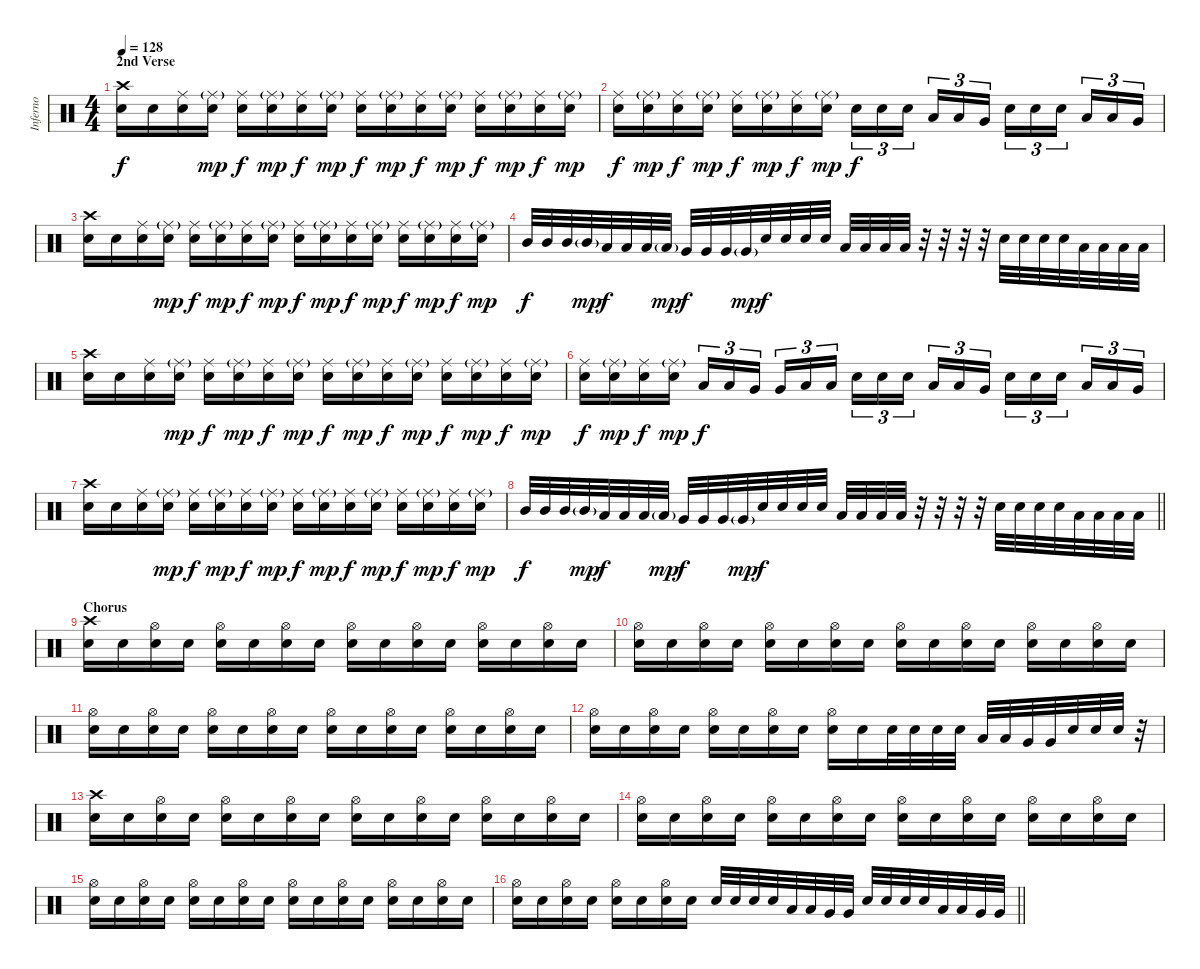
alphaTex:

\track ("Inferno" "Inferno") {instrument percussion}
\staff {score}
\articulation defaults
\ts (4 4)
\section ("" "2nd Verse")
\tempo 128
\clef neutral
\ks c
("Crash high (hit)" "Snare (hit) 2").16{dy f} "Snare (hit) 2".16 ("Ride (middle)" "Snare (hit) 2").16 ("Ride (middle)"{g} "Snare (hit) 2").16{dy mp} ("Ride (middle)" "Snare (hit) 2").16{dy f} ("Ride (middle)"{g} "Snare (hit) 2").16{dy mp} ("Ride (middle)" "Snare (hit) 2").16{dy f} ("Ride (middle)"{g} "Snare (hit) 2").16{dy mp} ("Ride (middle)" "Snare (hit) 2").16{dy f} ("Ride (middle)"{g} "Snare (hit) 2").16{dy mp} ("Ride (middle)" "Snare (hit) 2").16{dy f} ("Ride (middle)"{g} "Snare (hit) 2").16{dy mp} ("Ride (middle)" "Snare (hit) 2").16{dy f} ("Ride (middle)"{g} "Snare (hit) 2").16{dy mp} ("Ride (middle)" "Snare (hit) 2").16{dy f} ("Ride (middle)"{g} "Snare (hit) 2").16{dy mp} |
("Ride (middle)" "Snare (hit) 2").16{dy f} ("Ride (middle)"{g} "Snare (hit) 2").16{dy mp} ("Ride (middle)" "Snare (hit) 2").16{dy f} ("Ride (middle)"{g} "Snare (hit) 2").16{dy mp} ("Ride (middle)" "Snare (hit) 2").16{dy f} ("Ride (middle)"{g} "Snare (hit) 2").16{dy mp} ("Ride (middle)" "Snare (hit) 2").16{dy f} ("Ride (middle)"{g} "Snare (hit) 2").16{dy mp} "Snare (hit) 2".16{tu (3 2) dy f} "Snare (hit) 2".16{tu (3 2)} "Snare (hit) 2".16{tu (3 2) beam splitsecondary} "Low Tom (hit)".16{tu (3 2)} "Low Tom (hit)".16{tu (3 2)} "Very Low Tom (hit)".16{tu (3 2)} "Snare (hit) 2".16{tu (3 2)} "Snare (hit) 2".16{tu (3 2)} "Snare (hit) 2".16{tu (3 2) beam splitsecondary} "Low Tom (hit)".16{tu (3 2)} "Low Tom (hit)".16{tu (3 2)} "Very Low Tom (hit)".16{tu (3 2)} |
("Crash high (hit)" "Snare (hit) 2").16 "Snare (hit) 2".16 ("Ride (middle)" "Snare (hit) 2").16 ("Ride (middle)"{g} "Snare (hit) 2").16{dy mp} ("Ride (middle)" "Snare (hit) 2").16{dy f} ("Ride (middle)"{g} "Snare (hit) 2").16{dy mp} ("Ride (middle)" "Snare (hit) 2").16{dy f} ("Ride (middle)"{g} "Snare (hit) 2").16{dy mp} ("Ride (middle)" "Snare (hit) 2").16{dy f} ("Ride (middle)"{g} "Snare (hit) 2").16{dy mp} ("Ride (middle)" "Snare (hit) 2").16{dy f} ("Ride (middle)"{g} "Snare (hit) 2").16{dy mp} ("Ride (middle)" "Snare (hit) 2").16{dy f} ("Ride (middle)"{g} "Snare (hit) 2").16{dy mp} ("Ride (middle)" "Snare (hit) 2").16{dy f} ("Ride (middle)"{g} "Snare (hit) 2").16{dy mp} |
"Mid Tom (hit)".32{dy f} "Mid Tom (hit)".32 "Mid Tom (hit)".32 "Mid Tom (hit)"{g}.32{dy mp} "Low Tom (hit)".32{dy f} "Low Tom (hit)".32 "Low Tom (hit)".32 "Low Tom (hit)"{g}.32{dy mp} "Very Low Tom (hit)".32{dy f} "Very Low Tom (hit)".32 "Very Low Tom (hit)".32 "Very Low Tom (hit)"{g}.32{dy mp} "Snare (hit) 2".32{dy f} "Snare (hit) 2".32 "Snare (hit) 2".32 "Snare (hit) 2".32 "Low Floor Tom (hit)".32 "Low Floor Tom (hit)".32 "Low Floor Tom (hit)".32 "Low Floor Tom (hit)".32 r.32 r.32 r.32 r.32 "Snare (hit) 2".32 "Snare (hit) 2".32 "Snare (hit) 2".32 "Snare (hit) 2".32 "Low Tom (hit)".32 "Low Tom (hit)".32 "Low Tom (hit)".32 "Low Tom (hit)".32 |
("Crash high (hit)" "Snare (hit) 2").16 "Snare (hit) 2".16 ("Ride (middle)" "Snare (hit) 2").16 ("Ride (middle)"{g} "Snare (hit) 2").16{dy mp} ("Ride (middle)" "Snare (hit) 2").16{dy f} ("Ride (middle)"{g} "Snare (hit) 2").16{dy mp} ("Ride (middle)" "Snare (hit) 2").16{dy f} ("Ride (middle)"{g} "Snare (hit) 2").16{dy mp} ("Ride (middle)" "Snare (hit) 2").16{dy f} ("Ride (middle)"{g} "Snare (hit) 2").16{dy mp} ("Ride (middle)" "Snare (hit) 2").16{dy f} ("Ride (middle)"{g} "Snare (hit) 2").16{dy mp} ("Ride (middle)" "Snare (hit) 2").16{dy f} ("Ride (middle)"{g} "Snare (hit) 2").16{dy mp} ("Ride (middle)" "Snare (hit) 2").16{dy f} ("Ride (middle)"{g} "Snare (hit) 2").16{dy mp} |
("Ride (middle)" "Snare (hit) 2").16{dy f} ("Ride (middle)"{g} "Snare (hit) 2").16{dy mp} ("Ride (middle)" "Snare (hit) 2").16{dy f} ("Ride (middle)"{g} "Snare (hit) 2").16{dy mp} "Low Tom (hit)".16{tu (3 2) dy f} "Low Tom (hit)".16{tu (3 2)} "Very Low Tom (hit)".16{tu (3 2) beam splitsecondary} "Very Low Tom (hit)".16{tu (3 2)} "Low Floor Tom (hit)".16{tu (3 2)} "Low Floor Tom (hit)".16{tu (3 2)} "Snare (hit) 2".16{tu (3 2)} "Snare (hit) 2".16{tu (3 2)} "Snare (hit) 2".16{tu (3 2) beam splitsecondary} "Low Tom (hit)".16{tu (3 2)} "Low Tom (hit)".16{tu (3 2)} "Very Low Tom (hit)".16{tu (3 2)} "Snare (hit) 2".16{tu (3 2)} "Snare (hit) 2".16{tu (3 2)} "Snare (hit) 2".16{tu (3 2) beam splitsecondary} "Low Tom (hit)".16{tu (3 2)} "Low Tom (hit)".16{tu (3 2)} "Very Low Tom (hit)".16{tu (3 2)} |
("Crash high (hit)" "Snare (hit) 2").16 "Snare (hit) 2".16 ("Ride (middle)" "Snare (hit) 2").16 ("Ride (middle)"{g} "Snare (hit) 2").16{dy mp} ("Ride (middle)" "Snare (hit) 2").16{dy f} ("Ride (middle)"{g} "Snare (hit) 2").16{dy mp} ("Ride (middle)" "Snare (hit) 2").16{dy f} ("Ride (middle)"{g} "Snare (hit) 2").16{dy mp} ("Ride (middle)" "Snare (hit) 2").16{dy f} ("Ride (middle)"{g} "Snare (hit) 2").16{dy mp} ("Ride (middle)" "Snare (hit) 2").16{dy f} ("Ride (middle)"{g} "Snare (hit) 2").16{dy mp} ("Ride (middle)" "Snare (hit) 2").16{dy f} ("Ride (middle)"{g} "Snare (hit) 2").16{dy mp} ("Ride (middle)" "Snare (hit) 2").16{dy f} ("Ride (middle)"{g} "Snare (hit) 2").16{dy mp} |
\barLineRight lightlight "Mid Tom (hit)".32{dy f} "Mid Tom (hit)".32 "Mid Tom (hit)".32 "Mid Tom (hit)"{g}.32{dy mp} "Low Tom (hit)".32{dy f} "Low Tom (hit)".32 "Low Tom (hit)".32 "Low Tom (hit)"{g}.32{dy mp} "Very Low Tom (hit)".32{dy f} "Very Low Tom (hit)".32 "Very Low Tom (hit)".32 "Very Low Tom (hit)"{g}.32{dy mp} "Snare (hit) 2".32{dy f} "Snare (hit) 2".32 "Snare (hit) 2".32 "Snare (hit) 2".32 "Low Floor Tom (hit)".32 "Low Floor Tom (hit)".32 "Low Floor Tom (hit)".32 "Low Floor Tom (hit)".32
r.32 r.32 r.32 r.32 "Snare (hit) 2".32 "Snare (hit) 2".32 "Snare (hit) 2".32 "Snare (hit) 2".32 "Low Tom (hit)".32 "Low Tom (hit)".32 "Low Tom (hit)".32 "Low Tom (hit)".32 |
\section ("" "Chorus")
("Crash high (hit)" "Snare (hit) 2").16 "Snare (hit) 2".16 ("Hi-Hat (open)" "Snare (hit) 2").16 "Snare (hit) 2".16 ("Hi-Hat (open)" "Snare (hit) 2").16 "Snare (hit) 2".16 ("Hi-Hat (open)" "Snare (hit) 2").16 "Snare (hit) 2".16 ("Hi-Hat (open)" "Snare (hit) 2").16 "Snare (hit) 2".16 ("Hi-Hat (open)" "Snare (hit) 2").16 "Snare (hit) 2".16 ("Hi-Hat (open)" "Snare (hit) 2").16 "Snare (hit) 2".16 ("Hi-Hat (open)" "Snare (hit) 2").16 "Snare (hit) 2".16 |
("Hi-Hat (open)" "Snare (hit) 2").16 "Snare (hit) 2".16 ("Hi-Hat (open)" "Snare (hit) 2").16 "Snare (hit) 2".16 ("Hi-Hat (open)" "Snare (hit) 2").16 "Snare (hit) 2".16 ("Hi-Hat (open)" "Snare (hit) 2").16 "Snare (hit) 2".16 ("Hi-Hat (open)" "Snare (hit) 2").16 "Snare (hit) 2".16 ("Hi-Hat (open)" "Snare (hit) 2").16 "Snare (hit) 2".16 ("Hi-Hat (open)" "Snare (hit) 2").16 "Snare (hit) 2".16 ("Hi-Hat (open)" "Snare (hit) 2").16 "Snare (hit) 2".16 |
("Hi-Hat (open)" "Snare (hit) 2").16 "Snare (hit) 2".16 ("Hi-Hat (open)" "Snare (hit) 2").16 "Snare (hit) 2".16 ("Hi-Hat (open)" "Snare (hit) 2").16 "Snare (hit) 2".16 ("Hi-Hat (open)" "Snare (hit) 2").16 "Snare (hit) 2".16 ("Hi-Hat (open)" "Snare (hit) 2").16 "Snare (hit) 2".16 ("Hi-Hat (open)" "Snare (hit) 2").16 "Snare (hit) 2".16 ("Hi-Hat (open)" "Snare (hit) 2").16 "Snare (hit) 2".16 ("Hi-Hat (open)" "Snare (hit) 2").16 "Snare (hit) 2".16 |
("Hi-Hat (open)" "Snare (hit) 2").16 "Snare (hit) 2".16 ("Hi-Hat (open)" "Snare (hit) 2").16 "Snare (hit) 2".16 ("Hi-Hat (open)" "Snare (hit) 2").16 "Snare (hit) 2".16 ("Hi-Hat (open)" "Snare (hit) 2").16 "Snare (hit) 2".16 ("Hi-Hat (open)" "Snare (hit) 2").16 "Snare (hit) 2".16 "Snare (hit) 2".32 "Snare (hit) 2".32 "Snare (hit) 2".32 "Snare (hit) 2".32 "Low Tom (hit)".32 "Low Tom (hit)".32 "Very Low Tom (hit)".32 "Very Low Tom (hit)".32 "Snare (hit) 2".32 "Snare (hit) 2".32 "Snare (hit) 2".32 r.32 |
("Crash high (hit)" "Snare (hit) 2").16 "Snare (hit) 2".16 ("Hi-Hat (open)" "Snare (hit) 2").16 "Snare (hit) 2".16 ("Hi-Hat (open)" "Snare (hit) 2").16 "Snare (hit) 2".16 ("Hi-Hat (open)" "Snare (hit) 2").16 "Snare (hit) 2".16 ("Hi-Hat (open)" "Snare (hit) 2").16 "Snare (hit) 2".16 ("Hi-Hat (open)" "Snare (hit) 2").16 "Snare (hit) 2".16 ("Hi-Hat (open)" "Snare (hit) 2").16 "Snare (hit) 2".16 ("Hi-Hat (open)" "Snare (hit) 2").16 "Snare (hit) 2".16 |
("Hi-Hat (open)" "Snare (hit) 2").16 "Snare (hit) 2".16 ("Hi-Hat (open)" "Snare (hit) 2").16 "Snare (hit) 2".16 ("Hi-Hat (open)" "Snare (hit) 2").16 "Snare (hit) 2".16 ("Hi-Hat (open)" "Snare (hit) 2").16 "Snare (hit) 2".16 ("Hi-Hat (open)" "Snare (hit) 2").16 "Snare (hit) 2".16 ("Hi-Hat (open)" "Snare (hit) 2").16 "Snare (hit) 2".16 ("Hi-Hat (open)" "Snare (hit) 2").16 "Snare (hit) 2".16 ("Hi-Hat (open)" "Snare (hit) 2").16 "Snare (hit) 2".16 |
("Hi-Hat (open)" "Snare (hit) 2").16 "Snare (hit) 2".16 ("Hi-Hat (open)" "Snare (hit) 2").16 "Snare (hit) 2".16 ("Hi-Hat (open)" "Snare (hit) 2").16 "Snare (hit) 2".16 ("Hi-Hat (open)" "Snare (hit) 2").16 "Snare (hit) 2".16 ("Hi-Hat (open)" "Snare (hit) 2").16 "Snare (hit) 2".16 ("Hi-Hat (open)" "Snare (hit) 2").16 "Snare (hit) 2".16 ("Hi-Hat (open)" "Snare (hit) 2").16 "Snare (hit) 2".16 ("Hi-Hat (open)" "Snare (hit) 2").16 "Snare (hit) 2".16 |
\barLineRight lightlight
("Hi-Hat (open)" "Snare (hit) 2").16 "Snare (hit) 2".16 ("Hi-Hat (open)" "Snare (hit) 2").16 "Snare (hit) 2".16 ("Hi-Hat (open)" "Snare (hit) 2").16 "Snare (hit) 2".16 ("Hi-Hat (open)" "Snare (hit) 2").16 "Snare (hit) 2".16 "Snare (hit) 2".32 "Snare (hit) 2".32 "Snare (hit) 2".32 "Snare (hit) 2".32 "Low Tom (hit)".32 "Low Tom (hit)".32 "Very Low Tom (hit)".32 "Very Low Tom (hit)".32 "Snare (hit) 2".32 "Snare (hit) 2".32 "Snare (hit) 2".32 "Snare (hit) 2".32 "Low Tom (hit)".32 "Low Tom (hit)".32 "Very Low Tom (hit)".32 "Very Low Tom (hit)".32
